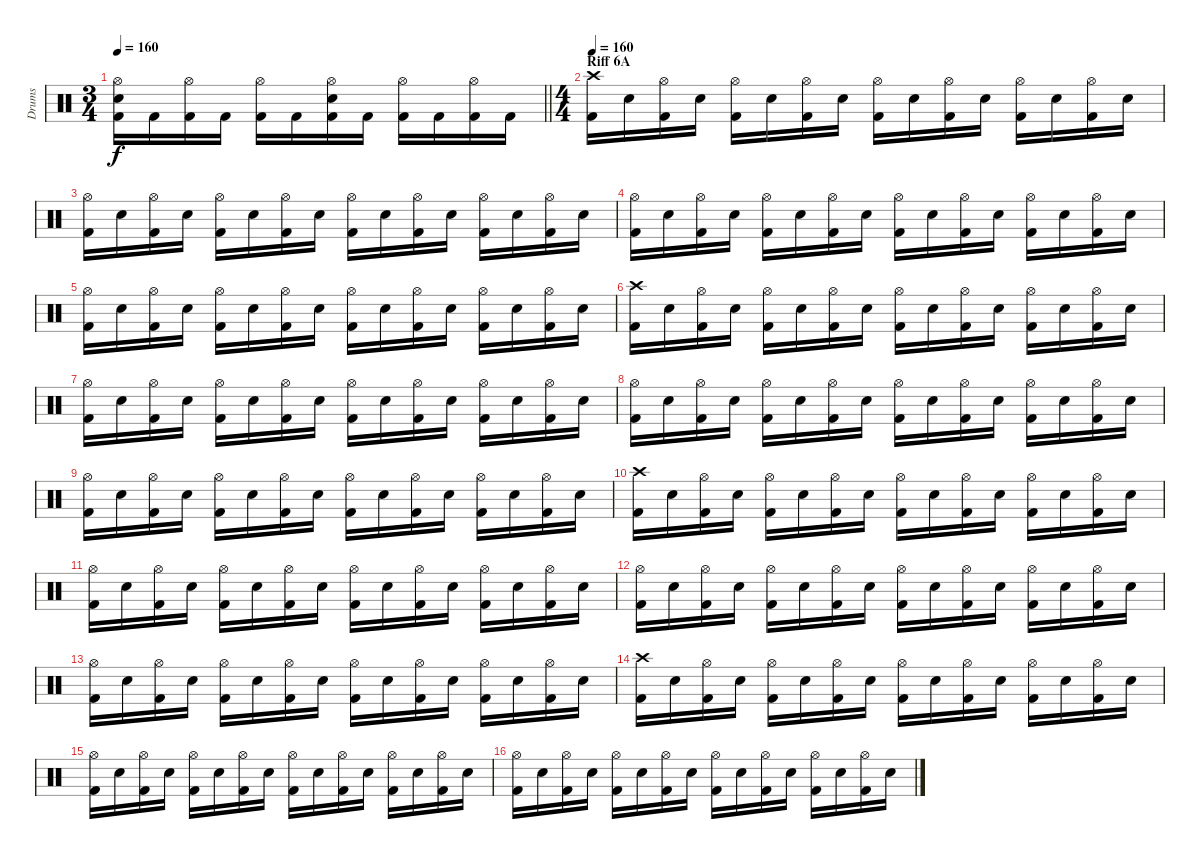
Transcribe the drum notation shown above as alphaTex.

\track ("Drums" "Drums") {instrument percussion}
\staff {score}
\articulation defaults
\ts (3 4)
\tempo 160
\clef neutral
\barLineRight lightlight
\ks c
("Hi-Hat (open)" "Electric Snare (hit)" "Kick (hit) 2").16{dy f} "Kick (hit) 2".16 ("Hi-Hat (open)" "Kick (hit) 2").16 "Kick (hit) 2".16 ("Hi-Hat (open)" "Kick (hit) 2").16 "Kick (hit) 2".16 ("Hi-Hat (open)" "Electric Snare (hit)" "Kick (hit) 2").16 "Kick (hit) 2".16 ("Hi-Hat (open)" "Kick (hit) 2").16 "Kick (hit) 2".16 ("Hi-Hat (open)" "Kick (hit) 2").16 "Kick (hit) 2".16 |
\ts (4 4)
\section ("" "Riff 6A")
\tempo 160
("Crash high (hit)" "Kick (hit) 2").16 "Electric Snare (hit)".16 ("Hi-Hat (open)" "Kick (hit) 2").16 "Electric Snare (hit)".16 ("Hi-Hat (open)" "Kick (hit) 2").16 "Electric Snare (hit)".16 ("Hi-Hat (open)" "Kick (hit) 2").16 "Electric Snare (hit)".16 ("Hi-Hat (open)" "Kick (hit) 2").16 "Electric Snare (hit)".16 ("Hi-Hat (open)" "Kick (hit) 2").16 "Electric Snare (hit)".16 ("Hi-Hat (open)" "Kick (hit) 2").16 "Electric Snare (hit)".16 ("Hi-Hat (open)" "Kick (hit) 2").16 "Electric Snare (hit)".16 |
("Hi-Hat (open)" "Kick (hit) 2").16 "Electric Snare (hit)".16 ("Hi-Hat (open)" "Kick (hit) 2").16 "Electric Snare (hit)".16 ("Hi-Hat (open)" "Kick (hit) 2").16 "Electric Snare (hit)".16 ("Hi-Hat (open)" "Kick (hit) 2").16 "Electric Snare (hit)".16 ("Hi-Hat (open)" "Kick (hit) 2").16 "Electric Snare (hit)".16 ("Hi-Hat (open)" "Kick (hit) 2").16 "Electric Snare (hit)".16 ("Hi-Hat (open)" "Kick (hit) 2").16 "Electric Snare (hit)".16 ("Hi-Hat (open)" "Kick (hit) 2").16 "Electric Snare (hit)".16 |
("Hi-Hat (open)" "Kick (hit) 2").16 "Electric Snare (hit)".16 ("Hi-Hat (open)" "Kick (hit) 2").16 "Electric Snare (hit)".16 ("Hi-Hat (open)" "Kick (hit) 2").16 "Electric Snare (hit)".16 ("Hi-Hat (open)" "Kick (hit) 2").16 "Electric Snare (hit)".16 ("Hi-Hat (open)" "Kick (hit) 2").16 "Electric Snare (hit)".16 ("Hi-Hat (open)" "Kick (hit) 2").16 "Electric Snare (hit)".16 ("Hi-Hat (open)" "Kick (hit) 2").16 "Electric Snare (hit)".16 ("Hi-Hat (open)" "Kick (hit) 2").16 "Electric Snare (hit)".16 |
("Hi-Hat (open)" "Kick (hit) 2").16 "Electric Snare (hit)".16 ("Hi-Hat (open)" "Kick (hit) 2").16 "Electric Snare (hit)".16 ("Hi-Hat (open)" "Kick (hit) 2").16 "Electric Snare (hit)".16 ("Hi-Hat (open)" "Kick (hit) 2").16 "Electric Snare (hit)".16 ("Hi-Hat (open)" "Kick (hit) 2").16 "Electric Snare (hit)".16 ("Hi-Hat (open)" "Kick (hit) 2").16 "Electric Snare (hit)".16 ("Hi-Hat (open)" "Kick (hit) 2").16 "Electric Snare (hit)".16 ("Hi-Hat (open)" "Kick (hit) 2").16 "Electric Snare (hit)".16 |
("Crash high (hit)" "Kick (hit) 2").16 "Electric Snare (hit)".16 ("Hi-Hat (open)" "Kick (hit) 2").16 "Electric Snare (hit)".16 ("Hi-Hat (open)" "Kick (hit) 2").16 "Electric Snare (hit)".16 ("Hi-Hat (open)" "Kick (hit) 2").16 "Electric Snare (hit)".16 ("Hi-Hat (open)" "Kick (hit) 2").16 "Electric Snare (hit)".16 ("Hi-Hat (open)" "Kick (hit) 2").16 "Electric Snare (hit)".16 ("Hi-Hat (open)" "Kick (hit) 2").16 "Electric Snare (hit)".16 ("Hi-Hat (open)" "Kick (hit) 2").16 "Electric Snare (hit)".16 |
("Hi-Hat (open)" "Kick (hit) 2").16 "Electric Snare (hit)".16 ("Hi-Hat (open)" "Kick (hit) 2").16 "Electric Snare (hit)".16 ("Hi-Hat (open)" "Kick (hit) 2").16 "Electric Snare (hit)".16 ("Hi-Hat (open)" "Kick (hit) 2").16 "Electric Snare (hit)".16 ("Hi-Hat (open)" "Kick (hit) 2").16 "Electric Snare (hit)".16 ("Hi-Hat (open)" "Kick (hit) 2").16 "Electric Snare (hit)".16 ("Hi-Hat (open)" "Kick (hit) 2").16 "Electric Snare (hit)".16 ("Hi-Hat (open)" "Kick (hit) 2").16 "Electric Snare (hit)".16 |
("Hi-Hat (open)" "Kick (hit) 2").16 "Electric Snare (hit)".16 ("Hi-Hat (open)" "Kick (hit) 2").16 "Electric Snare (hit)".16 ("Hi-Hat (open)" "Kick (hit) 2").16 "Electric Snare (hit)".16 ("Hi-Hat (open)" "Kick (hit) 2").16 "Electric Snare (hit)".16 ("Hi-Hat (open)" "Kick (hit) 2").16 "Electric Snare (hit)".16 ("Hi-Hat (open)" "Kick (hit) 2").16 "Electric Snare (hit)".16 ("Hi-Hat (open)" "Kick (hit) 2").16 "Electric Snare (hit)".16 ("Hi-Hat (open)" "Kick (hit) 2").16 "Electric Snare (hit)".16 |
("Hi-Hat (open)" "Kick (hit) 2").16 "Electric Snare (hit)".16 ("Hi-Hat (open)" "Kick (hit) 2").16 "Electric Snare (hit)".16 ("Hi-Hat (open)" "Kick (hit) 2").16 "Electric Snare (hit)".16 ("Hi-Hat (open)" "Kick (hit) 2").16 "Electric Snare (hit)".16 ("Hi-Hat (open)" "Kick (hit) 2").16 "Electric Snare (hit)".16 ("Hi-Hat (open)" "Kick (hit) 2").16 "Electric Snare (hit)".16 ("Hi-Hat (open)" "Kick (hit) 2").16 "Electric Snare (hit)".16 ("Hi-Hat (open)" "Kick (hit) 2").16 "Electric Snare (hit)".16 |
("Crash high (hit)" "Kick (hit) 2").16 "Electric Snare (hit)".16 ("Hi-Hat (open)" "Kick (hit) 2").16 "Electric Snare (hit)".16 ("Hi-Hat (open)" "Kick (hit) 2").16 "Electric Snare (hit)".16 ("Hi-Hat (open)" "Kick (hit) 2").16 "Electric Snare (hit)".16 ("Hi-Hat (open)" "Kick (hit) 2").16 "Electric Snare (hit)".16 ("Hi-Hat (open)" "Kick (hit) 2").16 "Electric Snare (hit)".16 ("Hi-Hat (open)" "Kick (hit) 2").16 "Electric Snare (hit)".16 ("Hi-Hat (open)" "Kick (hit) 2").16 "Electric Snare (hit)".16 |
("Hi-Hat (open)" "Kick (hit) 2").16 "Electric Snare (hit)".16 ("Hi-Hat (open)" "Kick (hit) 2").16 "Electric Snare (hit)".16 ("Hi-Hat (open)" "Kick (hit) 2").16 "Electric Snare (hit)".16 ("Hi-Hat (open)" "Kick (hit) 2").16 "Electric Snare (hit)".16 ("Hi-Hat (open)" "Kick (hit) 2").16 "Electric Snare (hit)".16 ("Hi-Hat (open)" "Kick (hit) 2").16 "Electric Snare (hit)".16 ("Hi-Hat (open)" "Kick (hit) 2").16 "Electric Snare (hit)".16 ("Hi-Hat (open)" "Kick (hit) 2").16 "Electric Snare (hit)".16 |
("Hi-Hat (open)" "Kick (hit) 2").16 "Electric Snare (hit)".16 ("Hi-Hat (open)" "Kick (hit) 2").16 "Electric Snare (hit)".16 ("Hi-Hat (open)" "Kick (hit) 2").16 "Electric Snare (hit)".16 ("Hi-Hat (open)" "Kick (hit) 2").16 "Electric Snare (hit)".16 ("Hi-Hat (open)" "Kick (hit) 2").16 "Electric Snare (hit)".16 ("Hi-Hat (open)" "Kick (hit) 2").16 "Electric Snare (hit)".16 ("Hi-Hat (open)" "Kick (hit) 2").16 "Electric Snare (hit)".16 ("Hi-Hat (open)" "Kick (hit) 2").16 "Electric Snare (hit)".16 |
("Hi-Hat (open)" "Kick (hit) 2").16 "Electric Snare (hit)".16 ("Hi-Hat (open)" "Kick (hit) 2").16 "Electric Snare (hit)".16 ("Hi-Hat (open)" "Kick (hit) 2").16 "Electric Snare (hit)".16 ("Hi-Hat (open)" "Kick (hit) 2").16 "Electric Snare (hit)".16 ("Hi-Hat (open)" "Kick (hit) 2").16 "Electric Snare (hit)".16 ("Hi-Hat (open)" "Kick (hit) 2").16 "Electric Snare (hit)".16 ("Hi-Hat (open)" "Kick (hit) 2").16 "Electric Snare (hit)".16 ("Hi-Hat (open)" "Kick (hit) 2").16 "Electric Snare (hit)".16 |
("Crash high (hit)" "Kick (hit) 2").16 "Electric Snare (hit)".16 ("Hi-Hat (open)" "Kick (hit) 2").16 "Electric Snare (hit)".16 ("Hi-Hat (open)" "Kick (hit) 2").16 "Electric Snare (hit)".16 ("Hi-Hat (open)" "Kick (hit) 2").16 "Electric Snare (hit)".16 ("Hi-Hat (open)" "Kick (hit) 2").16 "Electric Snare (hit)".16 ("Hi-Hat (open)" "Kick (hit) 2").16 "Electric Snare (hit)".16 ("Hi-Hat (open)" "Kick (hit) 2").16 "Electric Snare (hit)".16 ("Hi-Hat (open)" "Kick (hit) 2").16 "Electric Snare (hit)".16 |
("Hi-Hat (open)" "Kick (hit) 2").16 "Electric Snare (hit)".16 ("Hi-Hat (open)" "Kick (hit) 2").16 "Electric Snare (hit)".16 ("Hi-Hat (open)" "Kick (hit) 2").16 "Electric Snare (hit)".16 ("Hi-Hat (open)" "Kick (hit) 2").16 "Electric Snare (hit)".16 ("Hi-Hat (open)" "Kick (hit) 2").16 "Electric Snare (hit)".16 ("Hi-Hat (open)" "Kick (hit) 2").16 "Electric Snare (hit)".16 ("Hi-Hat (open)" "Kick (hit) 2").16 "Electric Snare (hit)".16 ("Hi-Hat (open)" "Kick (hit) 2").16 "Electric Snare (hit)".16 |
("Hi-Hat (open)" "Kick (hit) 2").16 "Electric Snare (hit)".16 ("Hi-Hat (open)" "Kick (hit) 2").16 "Electric Snare (hit)".16 ("Hi-Hat (open)" "Kick (hit) 2").16 "Electric Snare (hit)".16 ("Hi-Hat (open)" "Kick (hit) 2").16 "Electric Snare (hit)".16 ("Hi-Hat (open)" "Kick (hit) 2").16 "Electric Snare (hit)".16 ("Hi-Hat (open)" "Kick (hit) 2").16 "Electric Snare (hit)".16 ("Hi-Hat (open)" "Kick (hit) 2").16 "Electric Snare (hit)".16 ("Hi-Hat (open)" "Kick (hit) 2").16 "Electric Snare (hit)".16
